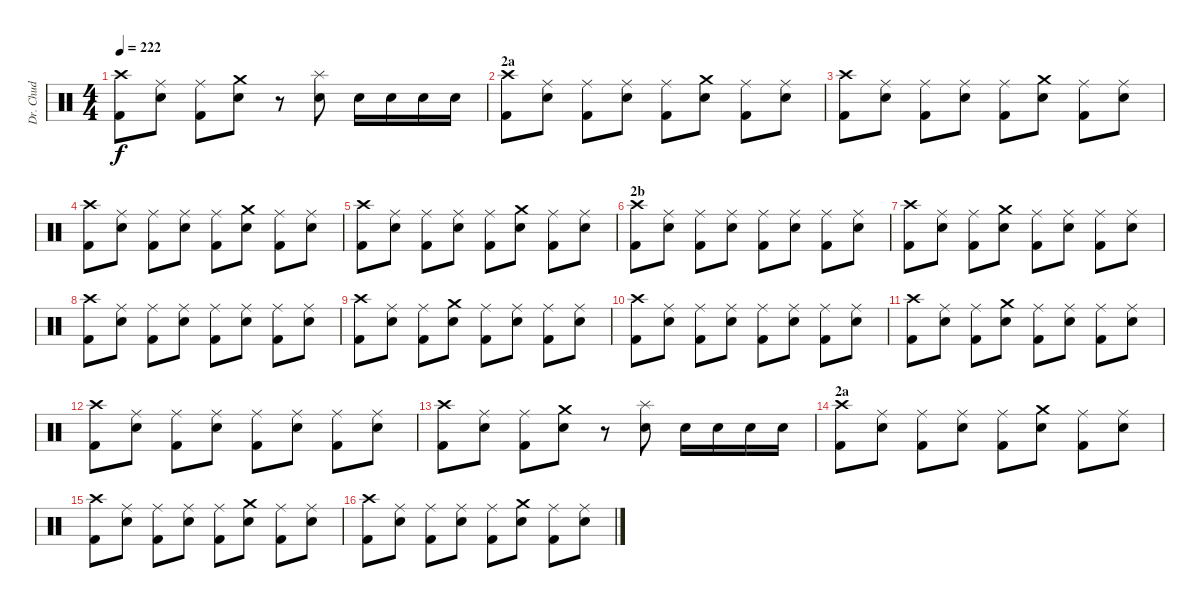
\track ("Dr. Chud" "Dr. Chud") {instrument percussion}
\staff {score}
\articulation defaults
\ts (4 4)
\tempo 222
\clef neutral
\ks c
("Crash high (hit)" "Kick (hit) 2").8{dy f} ("Ride (middle)" "Electric Snare (hit)").8 ("Ride (middle)" "Kick (hit) 2").8 ("Crash medium (hit)" "Electric Snare (hit)").8 r.8 ("Splash (hit)" "Electric Snare (hit)").8 "Electric Snare (hit)".16 "Electric Snare (hit)".16 "Electric Snare (hit)".16 "Electric Snare (hit)".16 |
\section ("" "2a")
("Crash high (hit)" "Kick (hit) 2").8 ("Ride (middle)" "Electric Snare (hit)").8 ("Ride (middle)" "Kick (hit) 2").8 ("Ride (middle)" "Electric Snare (hit)").8 ("Ride (middle)" "Kick (hit) 2").8 ("Crash medium (hit)" "Electric Snare (hit)").8 ("Ride (middle)" "Kick (hit) 2").8 ("Ride (middle)" "Electric Snare (hit)").8 |
("Crash high (hit)" "Kick (hit) 2").8 ("Ride (middle)" "Electric Snare (hit)").8 ("Ride (middle)" "Kick (hit) 2").8 ("Ride (middle)" "Electric Snare (hit)").8 ("Ride (middle)" "Kick (hit) 2").8 ("Crash medium (hit)" "Electric Snare (hit)").8 ("Ride (middle)" "Kick (hit) 2").8 ("Ride (middle)" "Electric Snare (hit)").8 |
("Crash high (hit)" "Kick (hit) 2").8 ("Ride (middle)" "Electric Snare (hit)").8 ("Ride (middle)" "Kick (hit) 2").8 ("Ride (middle)" "Electric Snare (hit)").8 ("Ride (middle)" "Kick (hit) 2").8 ("Crash medium (hit)" "Electric Snare (hit)").8 ("Ride (middle)" "Kick (hit) 2").8 ("Ride (middle)" "Electric Snare (hit)").8 |
("Crash high (hit)" "Kick (hit) 2").8 ("Ride (middle)" "Electric Snare (hit)").8 ("Ride (middle)" "Kick (hit) 2").8 ("Ride (middle)" "Electric Snare (hit)").8 ("Ride (middle)" "Kick (hit) 2").8 ("Crash medium (hit)" "Electric Snare (hit)").8 ("Ride (middle)" "Kick (hit) 2").8 ("Ride (middle)" "Electric Snare (hit)").8 |
\section ("" "2b")
("Crash high (hit)" "Kick (hit) 2").8 ("Ride (middle)" "Electric Snare (hit)").8 ("Ride (middle)" "Kick (hit) 2").8 ("Ride (middle)" "Electric Snare (hit)").8 ("Ride (middle)" "Kick (hit) 2").8 ("Ride (middle)" "Electric Snare (hit)").8 ("Ride (middle)" "Kick (hit) 2").8 ("Ride (middle)" "Electric Snare (hit)").8 |
("Crash high (hit)" "Kick (hit) 2").8 ("Ride (middle)" "Electric Snare (hit)").8 ("Ride (middle)" "Kick (hit) 2").8 ("Crash medium (hit)" "Electric Snare (hit)").8 ("Ride (middle)" "Kick (hit) 2").8 ("Ride (middle)" "Electric Snare (hit)").8 ("Ride (middle)" "Kick (hit) 2").8 ("Ride (middle)" "Electric Snare (hit)").8 |
("Crash high (hit)" "Kick (hit) 2").8 ("Ride (middle)" "Electric Snare (hit)").8 ("Ride (middle)" "Kick (hit) 2").8 ("Ride (middle)" "Electric Snare (hit)").8 ("Ride (middle)" "Kick (hit) 2").8 ("Ride (middle)" "Electric Snare (hit)").8 ("Ride (middle)" "Kick (hit) 2").8 ("Ride (middle)" "Electric Snare (hit)").8 |
("Crash high (hit)" "Kick (hit) 2").8 ("Ride (middle)" "Electric Snare (hit)").8 ("Ride (middle)" "Kick (hit) 2").8 ("Crash medium (hit)" "Electric Snare (hit)").8 ("Ride (middle)" "Kick (hit) 2").8 ("Ride (middle)" "Electric Snare (hit)").8 ("Ride (middle)" "Kick (hit) 2").8 ("Ride (middle)" "Electric Snare (hit)").8 |
("Crash high (hit)" "Kick (hit) 2").8 ("Ride (middle)" "Electric Snare (hit)").8 ("Ride (middle)" "Kick (hit) 2").8 ("Ride (middle)" "Electric Snare (hit)").8 ("Ride (middle)" "Kick (hit) 2").8 ("Ride (middle)" "Electric Snare (hit)").8 ("Ride (middle)" "Kick (hit) 2").8 ("Ride (middle)" "Electric Snare (hit)").8 |
("Crash high (hit)" "Kick (hit) 2").8 ("Ride (middle)" "Electric Snare (hit)").8 ("Ride (middle)" "Kick (hit) 2").8 ("Crash medium (hit)" "Electric Snare (hit)").8 ("Ride (middle)" "Kick (hit) 2").8 ("Ride (middle)" "Electric Snare (hit)").8 ("Ride (middle)" "Kick (hit) 2").8 ("Ride (middle)" "Electric Snare (hit)").8 |
("Crash high (hit)" "Kick (hit) 2").8 ("Ride (middle)" "Electric Snare (hit)").8 ("Ride (middle)" "Kick (hit) 2").8 ("Ride (middle)" "Electric Snare (hit)").8 ("Ride (middle)" "Kick (hit) 2").8 ("Ride (middle)" "Electric Snare (hit)").8 ("Ride (middle)" "Kick (hit) 2").8 ("Ride (middle)" "Electric Snare (hit)").8 |
("Crash high (hit)" "Kick (hit) 2").8 ("Ride (middle)" "Electric Snare (hit)").8 ("Ride (middle)" "Kick (hit) 2").8 ("Crash medium (hit)" "Electric Snare (hit)").8 r.8 ("Splash (hit)" "Electric Snare (hit)").8 "Electric Snare (hit)".16 "Electric Snare (hit)".16 "Electric Snare (hit)".16 "Electric Snare (hit)".16 |
\section ("" "2a")
("Crash high (hit)" "Kick (hit) 2").8 ("Ride (middle)" "Electric Snare (hit)").8 ("Ride (middle)" "Kick (hit) 2").8 ("Ride (middle)" "Electric Snare (hit)").8 ("Ride (middle)" "Kick (hit) 2").8 ("Crash medium (hit)" "Electric Snare (hit)").8 ("Ride (middle)" "Kick (hit) 2").8 ("Ride (middle)" "Electric Snare (hit)").8 |
("Crash high (hit)" "Kick (hit) 2").8 ("Ride (middle)" "Electric Snare (hit)").8 ("Ride (middle)" "Kick (hit) 2").8 ("Ride (middle)" "Electric Snare (hit)").8 ("Ride (middle)" "Kick (hit) 2").8 ("Crash medium (hit)" "Electric Snare (hit)").8 ("Ride (middle)" "Kick (hit) 2").8 ("Ride (middle)" "Electric Snare (hit)").8 |
("Crash high (hit)" "Kick (hit) 2").8 ("Ride (middle)" "Electric Snare (hit)").8 ("Ride (middle)" "Kick (hit) 2").8 ("Ride (middle)" "Electric Snare (hit)").8 ("Ride (middle)" "Kick (hit) 2").8 ("Crash medium (hit)" "Electric Snare (hit)").8 ("Ride (middle)" "Kick (hit) 2").8 ("Ride (middle)" "Electric Snare (hit)").8
